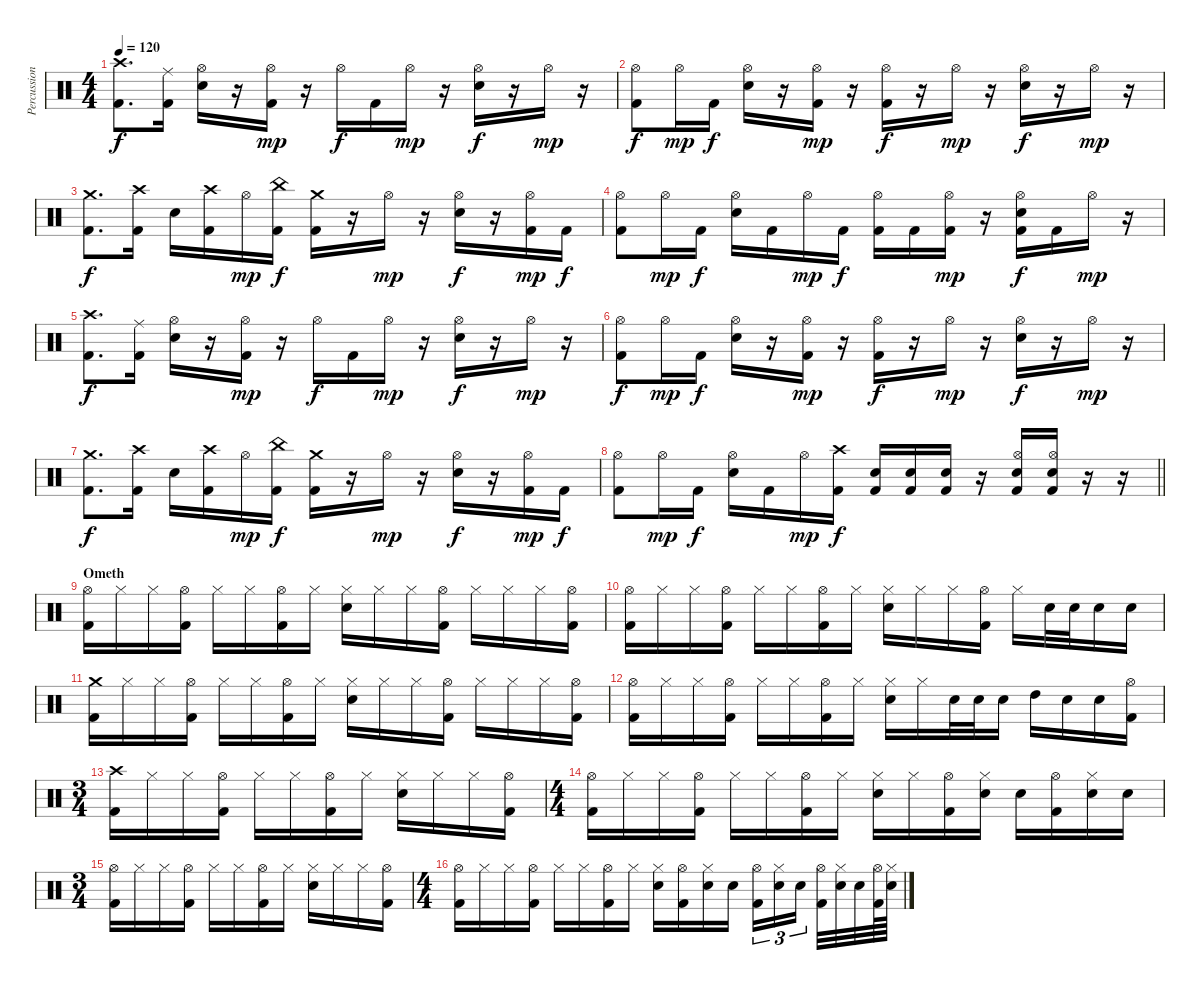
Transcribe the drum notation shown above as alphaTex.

\track ("Percussion" "Percussion") {instrument percussion}
\staff {score}
\articulation defaults
\ts (4 4)
\tempo 120
\clef neutral
\ks c
("Crash high (hit)" "Kick (hit) 2").8{d dy f} ("Ride (middle)" "Kick (hit) 2").16 ("Hi-Hat (open)" "Electric Snare (hit)").16 r.16 ("Hi-Hat (open)" "Kick (hit) 2").16{dy mp} r.16 "Hi-Hat (open)".16{dy f} "Kick (hit) 2".16 "Hi-Hat (open)".16{dy mp} r.16 ("Hi-Hat (open)" "Electric Snare (hit)").16{dy f} r.16 "Hi-Hat (open)".16{dy mp} r.16 |
("Hi-Hat (open)" "Kick (hit) 2").8{dy f} "Hi-Hat (open)".16{dy mp} "Kick (hit) 2".16{dy f} ("Hi-Hat (open)" "Electric Snare (hit)").16 r.16 ("Hi-Hat (open)" "Kick (hit) 2").16{dy mp} r.16 ("Hi-Hat (open)" "Kick (hit) 2").16{dy f} r.16 "Hi-Hat (open)".16{dy mp} r.16 ("Hi-Hat (open)" "Electric Snare (hit)").16{dy f} r.16 "Hi-Hat (open)".16{dy mp} r.16 |
("Crash medium (hit)" "Kick (hit) 2").8{d dy f} ("Crash high (hit)" "Kick (hit) 2").16 "Electric Snare (hit)".16 ("Crash high (hit)" "Kick (hit) 2").16 "Hi-Hat (open)".16{dy mp} ("China (hit)" "Kick (hit) 2").16{dy f} ("Crash medium (hit)" "Kick (hit) 2").16 r.16 "Hi-Hat (open)".16{dy mp} r.16 ("Hi-Hat (open)" "Electric Snare (hit)").16{dy f} r.16 ("Hi-Hat (open)" "Kick (hit) 2").16{dy mp} "Kick (hit) 2".16{dy f} |
("Hi-Hat (open)" "Kick (hit) 2").8 "Hi-Hat (open)".16{dy mp} "Kick (hit) 2".16{dy f} ("Hi-Hat (open)" "Electric Snare (hit)").16 "Kick (hit) 2".16 "Hi-Hat (open)".16{dy mp} "Kick (hit) 2".16{dy f} ("Hi-Hat (open)" "Kick (hit) 2").16 "Kick (hit) 2".16 ("Hi-Hat (open)" "Kick (hit) 2").16{dy mp} r.16 ("Hi-Hat (open)" "Electric Snare (hit)" "Kick (hit) 2").16{dy f} "Kick (hit) 2".16 "Hi-Hat (open)".16{dy mp} r.16 |
("Crash high (hit)" "Kick (hit) 2").8{d dy f} ("Ride (middle)" "Kick (hit) 2").16 ("Hi-Hat (open)" "Electric Snare (hit)").16 r.16 ("Hi-Hat (open)" "Kick (hit) 2").16{dy mp} r.16 "Hi-Hat (open)".16{dy f} "Kick (hit) 2".16 "Hi-Hat (open)".16{dy mp} r.16 ("Hi-Hat (open)" "Electric Snare (hit)").16{dy f} r.16 "Hi-Hat (open)".16{dy mp} r.16 |
("Hi-Hat (open)" "Kick (hit) 2").8{dy f} "Hi-Hat (open)".16{dy mp} "Kick (hit) 2".16{dy f} ("Hi-Hat (open)" "Electric Snare (hit)").16 r.16 ("Hi-Hat (open)" "Kick (hit) 2").16{dy mp} r.16 ("Hi-Hat (open)" "Kick (hit) 2").16{dy f} r.16 "Hi-Hat (open)".16{dy mp} r.16 ("Hi-Hat (open)" "Electric Snare (hit)").16{dy f} r.16 "Hi-Hat (open)".16{dy mp} r.16 |
("Crash medium (hit)" "Kick (hit) 2").8{d dy f} ("Crash high (hit)" "Kick (hit) 2").16 "Electric Snare (hit)".16 ("Crash high (hit)" "Kick (hit) 2").16 "Hi-Hat (open)".16{dy mp} ("China (hit)" "Kick (hit) 2").16{dy f} ("Crash medium (hit)" "Kick (hit) 2").16 r.16 "Hi-Hat (open)".16{dy mp} r.16 ("Hi-Hat (open)" "Electric Snare (hit)").16{dy f} r.16 ("Hi-Hat (open)" "Kick (hit) 2").16{dy mp} "Kick (hit) 2".16{dy f} |
\barLineRight lightlight
("Hi-Hat (open)" "Kick (hit) 2").8 "Hi-Hat (open)".16{dy mp} "Kick (hit) 2".16{dy f} ("Hi-Hat (open)" "Electric Snare (hit)").16 "Kick (hit) 2".16 "Hi-Hat (open)".16{dy mp} ("Crash high (hit)" "Kick (hit) 2").16{dy f} ("Electric Snare (hit)" "Kick (hit) 2").16 ("Electric Snare (hit)" "Kick (hit) 2").16 ("Electric Snare (hit)" "Kick (hit) 2").16 r.16 ("Hi-Hat (open)" "Electric Snare (hit)" "Kick (hit) 2").16 ("Hi-Hat (open)" "Electric Snare (hit)" "Kick (hit) 2").16 r.16 r.16 |
\section ("" "Ometh")
("Hi-Hat (open)" "Kick (hit) 2").16 "Hi-Hat (closed)".16 "Hi-Hat (closed)".16 ("Hi-Hat (open)" "Kick (hit) 2").16 "Hi-Hat (closed)".16 "Hi-Hat (closed)".16 ("Hi-Hat (open)" "Kick (hit) 2").16 "Hi-Hat (closed)".16 ("Hi-Hat (closed)" "Electric Snare (hit)").16 "Hi-Hat (closed)".16 "Hi-Hat (closed)".16 ("Hi-Hat (open)" "Kick (hit) 2").16 "Hi-Hat (closed)".16 "Hi-Hat (closed)".16 "Hi-Hat (closed)".16 ("Hi-Hat (open)" "Kick (hit) 2").16 |
("Hi-Hat (open)" "Kick (hit) 2").16 "Hi-Hat (closed)".16 "Hi-Hat (closed)".16 ("Hi-Hat (open)" "Kick (hit) 2").16 "Hi-Hat (closed)".16 "Hi-Hat (closed)".16 ("Hi-Hat (open)" "Kick (hit) 2").16 "Hi-Hat (closed)".16 ("Hi-Hat (closed)" "Electric Snare (hit)").16 "Hi-Hat (closed)".16 "Hi-Hat (closed)".16 ("Hi-Hat (open)" "Kick (hit) 2").16 "Hi-Hat (closed)".16 "Electric Snare (hit)".32 "Electric Snare (hit)".32 "Electric Snare (hit)".16 "Electric Snare (hit)".16 |
("Crash medium (hit)" "Kick (hit) 2").16 "Hi-Hat (closed)".16 "Hi-Hat (closed)".16 ("Hi-Hat (open)" "Kick (hit) 2").16 "Hi-Hat (closed)".16 "Hi-Hat (closed)".16 ("Hi-Hat (open)" "Kick (hit) 2").16 "Hi-Hat (closed)".16 ("Hi-Hat (closed)" "Electric Snare (hit)").16 "Hi-Hat (closed)".16 "Hi-Hat (closed)".16 ("Hi-Hat (open)" "Kick (hit) 2").16 "Hi-Hat (closed)".16 "Hi-Hat (closed)".16 "Hi-Hat (closed)".16 ("Hi-Hat (open)" "Kick (hit) 2").16 |
("Hi-Hat (open)" "Kick (hit) 2").16 "Hi-Hat (closed)".16 "Hi-Hat (closed)".16 ("Hi-Hat (open)" "Kick (hit) 2").16 "Hi-Hat (closed)".16 "Hi-Hat (closed)".16 ("Hi-Hat (open)" "Kick (hit) 2").16 "Hi-Hat (closed)".16 ("Hi-Hat (closed)" "Electric Snare (hit)").16 "Hi-Hat (closed)".16 "Electric Snare (hit)".32 "Electric Snare (hit)".32 "Electric Snare (hit)".16 "High Tom (hit)".16 "Electric Snare (hit)".16 "Electric Snare (hit)".16 ("Hi-Hat (open)" "Kick (hit) 2").16 |
\ts (3 4)
("Crash high (hit)" "Kick (hit) 2").16 "Hi-Hat (closed)".16 "Hi-Hat (closed)".16 ("Hi-Hat (open)" "Kick (hit) 2").16 "Hi-Hat (closed)".16 "Hi-Hat (closed)".16 ("Hi-Hat (open)" "Kick (hit) 2").16 "Hi-Hat (closed)".16 ("Hi-Hat (closed)" "Snare (hit) 2").16 "Hi-Hat (closed)".16 "Hi-Hat (closed)".16 ("Hi-Hat (open)" "Kick (hit) 2").16 |
\ts (4 4)
("Hi-Hat (open)" "Kick (hit) 2").16 "Hi-Hat (closed)".16 "Hi-Hat (closed)".16 ("Hi-Hat (open)" "Kick (hit) 2").16 "Hi-Hat (closed)".16 "Hi-Hat (closed)".16 ("Hi-Hat (open)" "Kick (hit) 2").16 "Hi-Hat (closed)".16 ("Hi-Hat (closed)" "Snare (hit) 2").16 "Hi-Hat (closed)".16 ("Hi-Hat (open)" "Kick (hit) 2").16 ("Hi-Hat (closed)" "Snare (hit) 2").16 "Snare (hit) 2".16 ("Hi-Hat (open)" "Kick (hit) 2").16 ("Hi-Hat (closed)" "Snare (hit) 2").16 "Snare (hit) 2".16 |
\ts (3 4)
("Hi-Hat (open)" "Kick (hit) 2").16 "Hi-Hat (closed)".16 "Hi-Hat (closed)".16 ("Hi-Hat (open)" "Kick (hit) 2").16 "Hi-Hat (closed)".16 "Hi-Hat (closed)".16 ("Hi-Hat (open)" "Kick (hit) 2").16 "Hi-Hat (closed)".16 ("Hi-Hat (closed)" "Snare (hit) 2").16 "Hi-Hat (closed)".16 "Hi-Hat (closed)".16 ("Hi-Hat (open)" "Kick (hit) 2").16 |
\ts (4 4)
("Hi-Hat (open)" "Kick (hit) 2").16 "Hi-Hat (closed)".16 "Hi-Hat (closed)".16 ("Hi-Hat (open)" "Kick (hit) 2").16 "Hi-Hat (closed)".16 "Hi-Hat (closed)".16 ("Hi-Hat (open)" "Kick (hit) 2").16 "Hi-Hat (closed)".16 ("Hi-Hat (closed)" "Snare (hit) 2").16 ("Hi-Hat (open)" "Kick (hit) 2").16 ("Hi-Hat (closed)" "Snare (hit) 2").16 "Snare (hit) 2".16 ("Hi-Hat (open)" "Kick (hit) 2").16{tu (3 2)} ("Hi-Hat (closed)" "Snare (hit) 2").16{tu (3 2)} "Snare (hit) 2".16{tu (3 2) beam splitsecondary} ("Hi-Hat (open)" "Kick (hit) 2").32 ("Hi-Hat (closed)" "Snare (hit) 2").32 "Snare (hit) 2".32 ("Hi-Hat (open)" "Kick (hit) 2").64 ("Hi-Hat (closed)" "Snare (hit) 2").64
